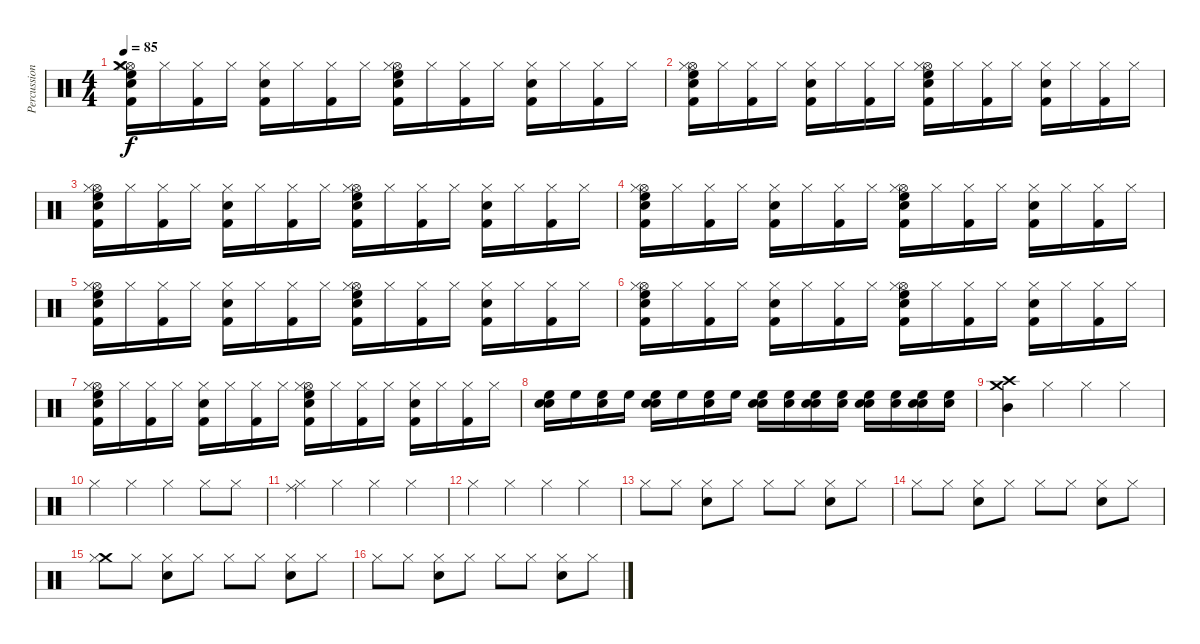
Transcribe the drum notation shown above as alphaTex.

\track ("Percussions" "Percussion") {instrument percussion}
\staff {score}
\articulation defaults
\ts (4 4)
\tempo 85
\clef neutral
\ks c
("Hi-Hat (open)" "Snare (hit) 2" "Kick (hit) 2" "High Floor Tom (hit)" "Crash medium (hit)" "Hi-Hat (closed)").16{dy f} "Hi-Hat (closed)".16 ("Kick (hit) 2" "Hi-Hat (closed)").16 "Hi-Hat (closed)".16 ("Snare (hit) 2" "Kick (hit) 2" "Hi-Hat (closed)").16 "Hi-Hat (closed)".16 ("Kick (hit) 2" "Hi-Hat (closed)").16 "Hi-Hat (closed)".16 ("Hi-Hat (open)" "Snare (hit) 2" "Kick (hit) 2" "High Floor Tom (hit)" "Hi-Hat (closed)").16 "Hi-Hat (closed)".16 ("Kick (hit) 2" "Hi-Hat (closed)").16 "Hi-Hat (closed)".16 ("Snare (hit) 2" "Kick (hit) 2" "Hi-Hat (closed)").16 "Hi-Hat (closed)".16 ("Kick (hit) 2" "Hi-Hat (closed)").16 "Hi-Hat (closed)".16 |
("Hi-Hat (open)" "Snare (hit) 2" "Kick (hit) 2" "High Floor Tom (hit)" "Hi-Hat (closed)").16 "Hi-Hat (closed)".16 ("Kick (hit) 2" "Hi-Hat (closed)").16 "Hi-Hat (closed)".16 ("Snare (hit) 2" "Kick (hit) 2" "Hi-Hat (closed)").16 "Hi-Hat (closed)".16 ("Kick (hit) 2" "Hi-Hat (closed)").16 "Hi-Hat (closed)".16 ("Hi-Hat (open)" "Snare (hit) 2" "Kick (hit) 2" "High Floor Tom (hit)" "Hi-Hat (closed)").16 "Hi-Hat (closed)".16 ("Kick (hit) 2" "Hi-Hat (closed)").16 "Hi-Hat (closed)".16 ("Snare (hit) 2" "Kick (hit) 2" "Hi-Hat (closed)").16 "Hi-Hat (closed)".16 ("Kick (hit) 2" "Hi-Hat (closed)").16 "Hi-Hat (closed)".16 |
("Hi-Hat (open)" "Snare (hit) 2" "Kick (hit) 2" "High Floor Tom (hit)" "Hi-Hat (closed)").16 "Hi-Hat (closed)".16 ("Kick (hit) 2" "Hi-Hat (closed)").16 "Hi-Hat (closed)".16 ("Snare (hit) 2" "Kick (hit) 2" "Hi-Hat (closed)").16 "Hi-Hat (closed)".16 ("Kick (hit) 2" "Hi-Hat (closed)").16 "Hi-Hat (closed)".16 ("Hi-Hat (open)" "Snare (hit) 2" "Kick (hit) 2" "High Floor Tom (hit)" "Hi-Hat (closed)").16 "Hi-Hat (closed)".16 ("Kick (hit) 2" "Hi-Hat (closed)").16 "Hi-Hat (closed)".16 ("Snare (hit) 2" "Kick (hit) 2" "Hi-Hat (closed)").16 "Hi-Hat (closed)".16 ("Kick (hit) 2" "Hi-Hat (closed)").16 "Hi-Hat (closed)".16 |
("Hi-Hat (open)" "Snare (hit) 2" "Kick (hit) 2" "High Floor Tom (hit)" "Hi-Hat (closed)").16 "Hi-Hat (closed)".16 ("Kick (hit) 2" "Hi-Hat (closed)").16 "Hi-Hat (closed)".16 ("Snare (hit) 2" "Kick (hit) 2" "Hi-Hat (closed)").16 "Hi-Hat (closed)".16 ("Kick (hit) 2" "Hi-Hat (closed)").16 "Hi-Hat (closed)".16 ("Hi-Hat (open)" "Snare (hit) 2" "Kick (hit) 2" "High Floor Tom (hit)" "Hi-Hat (closed)").16 "Hi-Hat (closed)".16 ("Kick (hit) 2" "Hi-Hat (closed)").16 "Hi-Hat (closed)".16 ("Snare (hit) 2" "Kick (hit) 2" "Hi-Hat (closed)").16 "Hi-Hat (closed)".16 ("Kick (hit) 2" "Hi-Hat (closed)").16 "Hi-Hat (closed)".16 |
("Hi-Hat (open)" "Snare (hit) 2" "Kick (hit) 2" "High Floor Tom (hit)" "Hi-Hat (closed)").16 "Hi-Hat (closed)".16 ("Kick (hit) 2" "Hi-Hat (closed)").16 "Hi-Hat (closed)".16 ("Snare (hit) 2" "Kick (hit) 2" "Hi-Hat (closed)").16 "Hi-Hat (closed)".16 ("Kick (hit) 2" "Hi-Hat (closed)").16 "Hi-Hat (closed)".16 ("Hi-Hat (open)" "Snare (hit) 2" "Kick (hit) 2" "High Floor Tom (hit)" "Hi-Hat (closed)").16 "Hi-Hat (closed)".16 ("Kick (hit) 2" "Hi-Hat (closed)").16 "Hi-Hat (closed)".16 ("Snare (hit) 2" "Kick (hit) 2" "Hi-Hat (closed)").16 "Hi-Hat (closed)".16 ("Kick (hit) 2" "Hi-Hat (closed)").16 "Hi-Hat (closed)".16 |
("Hi-Hat (open)" "Snare (hit) 2" "Kick (hit) 2" "High Floor Tom (hit)" "Hi-Hat (closed)").16 "Hi-Hat (closed)".16 ("Kick (hit) 2" "Hi-Hat (closed)").16 "Hi-Hat (closed)".16 ("Snare (hit) 2" "Kick (hit) 2" "Hi-Hat (closed)").16 "Hi-Hat (closed)".16 ("Kick (hit) 2" "Hi-Hat (closed)").16 "Hi-Hat (closed)".16 ("Hi-Hat (open)" "Snare (hit) 2" "Kick (hit) 2" "High Floor Tom (hit)" "Hi-Hat (closed)").16 "Hi-Hat (closed)".16 ("Kick (hit) 2" "Hi-Hat (closed)").16 "Hi-Hat (closed)".16 ("Snare (hit) 2" "Kick (hit) 2" "Hi-Hat (closed)").16 "Hi-Hat (closed)".16 ("Kick (hit) 2" "Hi-Hat (closed)").16 "Hi-Hat (closed)".16 |
("Hi-Hat (open)" "Snare (hit) 2" "Kick (hit) 2" "High Floor Tom (hit)" "Hi-Hat (closed)").16 "Hi-Hat (closed)".16 ("Kick (hit) 2" "Hi-Hat (closed)").16 "Hi-Hat (closed)".16 ("Snare (hit) 2" "Kick (hit) 2" "Hi-Hat (closed)").16 "Hi-Hat (closed)".16 ("Kick (hit) 2" "Hi-Hat (closed)").16 "Hi-Hat (closed)".16 ("Hi-Hat (open)" "Snare (hit) 2" "Kick (hit) 2" "High Floor Tom (hit)" "Hi-Hat (closed)").16 "Hi-Hat (closed)".16 ("Kick (hit) 2" "Hi-Hat (closed)").16 "Hi-Hat (closed)".16 ("Snare (hit) 2" "Kick (hit) 2" "Hi-Hat (closed)").16 "Hi-Hat (closed)".16 ("Kick (hit) 2" "Hi-Hat (closed)").16 "Hi-Hat (closed)".16 |
("Snare (hit) 2" "Hand Clap (hit)" "High Floor Tom (hit)").16 "High Floor Tom (hit)".16 ("Snare (hit) 2" "High Floor Tom (hit)").16 "High Floor Tom (hit)".16 ("Snare (hit) 2" "Hand Clap (hit)" "High Floor Tom (hit)").16 "High Floor Tom (hit)".16 ("Snare (hit) 2" "High Floor Tom (hit)").16 "High Floor Tom (hit)".16 ("Snare (hit) 2" "Hand Clap (hit)" "High Floor Tom (hit)").16 ("Snare (hit) 2" "High Floor Tom (hit)").16 ("Snare (hit) 2" "Hand Clap (hit)" "High Floor Tom (hit)").16 ("Snare (hit) 2" "High Floor Tom (hit)").16 ("Snare (hit) 2" "Hand Clap (hit)" "High Floor Tom (hit)").16 ("Snare (hit) 2" "High Floor Tom (hit)").16 ("Snare (hit) 2" "Hand Clap (hit)" "High Floor Tom (hit)").16 ("Snare (hit) 2" "High Floor Tom (hit)").16 |
("Crash high (hit)" "Crash medium (hit)" "Mid Tom (hit)").4 "Hi-Hat (closed)".4 "Hi-Hat (closed)".4 "Hi-Hat (closed)".4 |
"Hi-Hat (closed)".4 "Hi-Hat (closed)".4 "Hi-Hat (closed)".4 "Hi-Hat (closed)".8 "Hi-Hat (closed)".8 |
("Ride (middle)" "Hi-Hat (closed)").4 "Hi-Hat (closed)".4 "Hi-Hat (closed)".4 "Hi-Hat (closed)".4 |
"Hi-Hat (closed)".4 "Hi-Hat (closed)".4 "Hi-Hat (closed)".4 "Hi-Hat (closed)".4 |
"Hi-Hat (closed)".8 "Hi-Hat (closed)".8 ("Snare (hit) 2" "Hi-Hat (closed)").8 "Hi-Hat (closed)".8 "Hi-Hat (closed)".8 "Hi-Hat (closed)".8 ("Snare (hit) 2" "Hi-Hat (closed)").8 "Hi-Hat (closed)".8 |
"Hi-Hat (closed)".8 "Hi-Hat (closed)".8 ("Snare (hit) 2" "Hi-Hat (closed)").8 "Hi-Hat (closed)".8 "Hi-Hat (closed)".8 "Hi-Hat (closed)".8 ("Snare (hit) 2" "Hi-Hat (closed)").8 "Hi-Hat (closed)".8 |
("Crash medium (hit)" "Hi-Hat (closed)").8 "Hi-Hat (closed)".8 ("Snare (hit) 2" "Hi-Hat (closed)").8 "Hi-Hat (closed)".8 "Hi-Hat (closed)".8 "Hi-Hat (closed)".8 ("Snare (hit) 2" "Hi-Hat (closed)").8 "Hi-Hat (closed)".8 |
"Hi-Hat (closed)".8 "Hi-Hat (closed)".8 ("Snare (hit) 2" "Hi-Hat (closed)").8 "Hi-Hat (closed)".8 "Hi-Hat (closed)".8 "Hi-Hat (closed)".8 ("Snare (hit) 2" "Hi-Hat (closed)").8 "Hi-Hat (closed)".8
